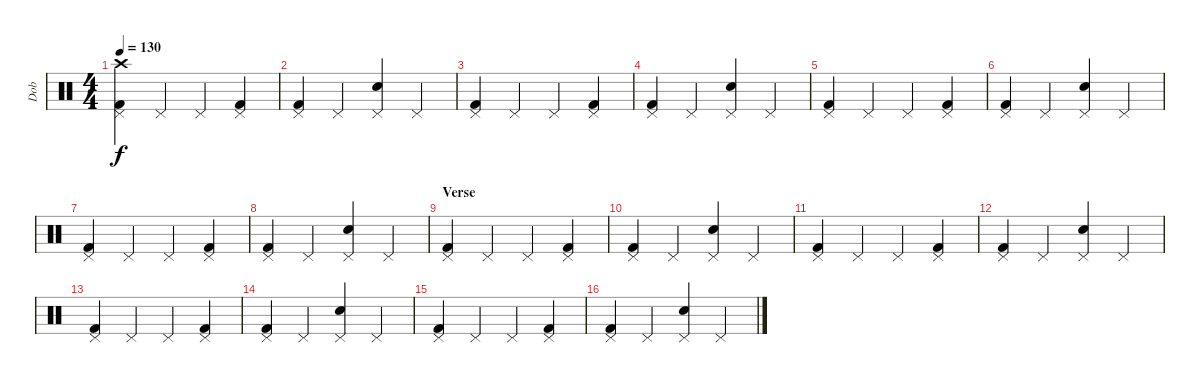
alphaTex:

\track ("Dob" "Dob") {instrument percussion}
\staff {score}
\articulation defaults
\ts (4 4)
\tempo 130
\clef neutral
\ks c
("Crash high (hit)" "Pedal Hi-Hat (hit)" "Kick (hit) 2").4{dy f} "Pedal Hi-Hat (hit)".4 "Pedal Hi-Hat (hit)".4 ("Pedal Hi-Hat (hit)" "Kick (hit) 2").4 |
("Pedal Hi-Hat (hit)" "Kick (hit) 2").4 "Pedal Hi-Hat (hit)".4 ("Pedal Hi-Hat (hit)" "Snare (hit) 2").4 "Pedal Hi-Hat (hit)".4 |
("Pedal Hi-Hat (hit)" "Kick (hit) 2").4 "Pedal Hi-Hat (hit)".4 "Pedal Hi-Hat (hit)".4 ("Pedal Hi-Hat (hit)" "Kick (hit) 2").4 |
("Pedal Hi-Hat (hit)" "Kick (hit) 2").4 "Pedal Hi-Hat (hit)".4 ("Pedal Hi-Hat (hit)" "Snare (hit) 2").4 "Pedal Hi-Hat (hit)".4 |
("Pedal Hi-Hat (hit)" "Kick (hit) 2").4 "Pedal Hi-Hat (hit)".4 "Pedal Hi-Hat (hit)".4 ("Pedal Hi-Hat (hit)" "Kick (hit) 2").4 |
("Pedal Hi-Hat (hit)" "Kick (hit) 2").4 "Pedal Hi-Hat (hit)".4 ("Pedal Hi-Hat (hit)" "Snare (hit) 2").4 "Pedal Hi-Hat (hit)".4 |
("Pedal Hi-Hat (hit)" "Kick (hit) 2").4 "Pedal Hi-Hat (hit)".4 "Pedal Hi-Hat (hit)".4 ("Pedal Hi-Hat (hit)" "Kick (hit) 2").4 |
("Pedal Hi-Hat (hit)" "Kick (hit) 2").4 "Pedal Hi-Hat (hit)".4 ("Pedal Hi-Hat (hit)" "Snare (hit) 2").4 "Pedal Hi-Hat (hit)".4 |
\section ("" "Verse")
("Pedal Hi-Hat (hit)" "Kick (hit) 2").4 "Pedal Hi-Hat (hit)".4 "Pedal Hi-Hat (hit)".4 ("Pedal Hi-Hat (hit)" "Kick (hit) 2").4 |
("Pedal Hi-Hat (hit)" "Kick (hit) 2").4 "Pedal Hi-Hat (hit)".4 ("Pedal Hi-Hat (hit)" "Snare (hit) 2").4 "Pedal Hi-Hat (hit)".4 |
("Pedal Hi-Hat (hit)" "Kick (hit) 2").4 "Pedal Hi-Hat (hit)".4 "Pedal Hi-Hat (hit)".4 ("Pedal Hi-Hat (hit)" "Kick (hit) 2").4 |
("Pedal Hi-Hat (hit)" "Kick (hit) 2").4 "Pedal Hi-Hat (hit)".4 ("Pedal Hi-Hat (hit)" "Snare (hit) 2").4 "Pedal Hi-Hat (hit)".4 |
("Pedal Hi-Hat (hit)" "Kick (hit) 2").4 "Pedal Hi-Hat (hit)".4 "Pedal Hi-Hat (hit)".4 ("Pedal Hi-Hat (hit)" "Kick (hit) 2").4 |
("Pedal Hi-Hat (hit)" "Kick (hit) 2").4 "Pedal Hi-Hat (hit)".4 ("Pedal Hi-Hat (hit)" "Snare (hit) 2").4 "Pedal Hi-Hat (hit)".4 |
("Pedal Hi-Hat (hit)" "Kick (hit) 2").4 "Pedal Hi-Hat (hit)".4 "Pedal Hi-Hat (hit)".4 ("Pedal Hi-Hat (hit)" "Kick (hit) 2").4 |
("Pedal Hi-Hat (hit)" "Kick (hit) 2").4 "Pedal Hi-Hat (hit)".4 ("Pedal Hi-Hat (hit)" "Snare (hit) 2").4 "Pedal Hi-Hat (hit)".4
